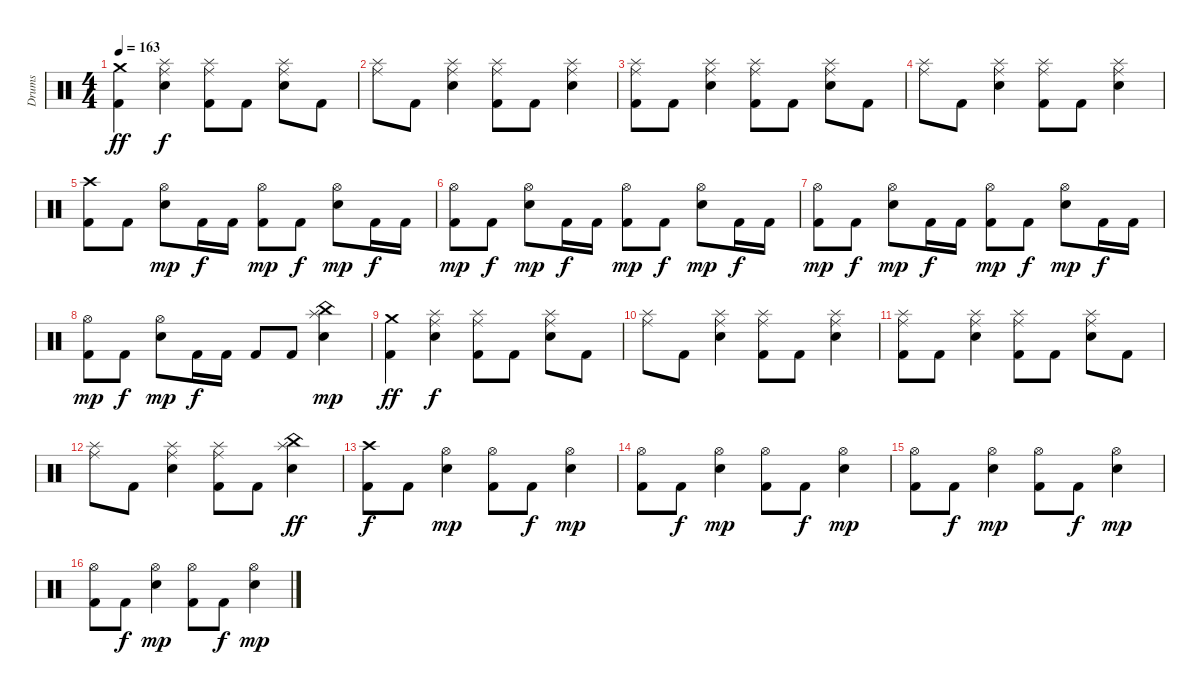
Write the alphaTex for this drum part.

\track ("Drums" "Drums") {instrument percussion}
\staff {score}
\articulation defaults
\ts (4 4)
\tempo 163
\clef neutral
\ks c
("Crash medium (hit)" "Kick (hit) 2").4{dy ff} ("Splash (hit)" "Ride (middle)" "Electric Snare (hit)").4{dy f} ("Splash (hit)" "Ride (middle)" "Kick (hit) 2").8 "Kick (hit) 2".8 ("Splash (hit)" "Ride (middle)" "Electric Snare (hit)").8 "Kick (hit) 2".8 |
("Splash (hit)" "Ride (middle)").8 "Kick (hit) 2".8 ("Splash (hit)" "Ride (middle)" "Electric Snare (hit)").4 ("Splash (hit)" "Ride (middle)" "Kick (hit) 2").8 "Kick (hit) 2".8 ("Splash (hit)" "Ride (middle)" "Electric Snare (hit)").4 |
("Splash (hit)" "Ride (middle)" "Kick (hit) 2").8 "Kick (hit) 2".8 ("Splash (hit)" "Ride (middle)" "Electric Snare (hit)").4 ("Splash (hit)" "Ride (middle)" "Kick (hit) 2").8 "Kick (hit) 2".8 ("Splash (hit)" "Ride (middle)" "Electric Snare (hit)").8 "Kick (hit) 2".8 |
("Splash (hit)" "Ride (middle)").8 "Kick (hit) 2".8 ("Splash (hit)" "Ride (middle)" "Electric Snare (hit)").4 ("Splash (hit)" "Ride (middle)" "Kick (hit) 2").8 "Kick (hit) 2".8 ("Splash (hit)" "Ride (middle)" "Electric Snare (hit)").4 |
("Crash high (hit)" "Kick (hit) 2").8 "Kick (hit) 2".8 ("Hi-Hat (open)" "Electric Snare (hit)").8{dy mp} "Kick (hit) 2".16{dy f} "Kick (hit) 2".16 ("Hi-Hat (open)" "Kick (hit) 2").8{dy mp} "Kick (hit) 2".8{dy f} ("Hi-Hat (open)" "Electric Snare (hit)").8{dy mp} "Kick (hit) 2".16{dy f} "Kick (hit) 2".16 |
("Hi-Hat (open)" "Kick (hit) 2").8{dy mp} "Kick (hit) 2".8{dy f} ("Hi-Hat (open)" "Electric Snare (hit)").8{dy mp} "Kick (hit) 2".16{dy f} "Kick (hit) 2".16 ("Hi-Hat (open)" "Kick (hit) 2").8{dy mp} "Kick (hit) 2".8{dy f} ("Hi-Hat (open)" "Electric Snare (hit)").8{dy mp} "Kick (hit) 2".16{dy f} "Kick (hit) 2".16 |
("Hi-Hat (open)" "Kick (hit) 2").8{dy mp} "Kick (hit) 2".8{dy f} ("Hi-Hat (open)" "Electric Snare (hit)").8{dy mp} "Kick (hit) 2".16{dy f} "Kick (hit) 2".16 ("Hi-Hat (open)" "Kick (hit) 2").8{dy mp} "Kick (hit) 2".8{dy f} ("Hi-Hat (open)" "Electric Snare (hit)").8{dy mp} "Kick (hit) 2".16{dy f} "Kick (hit) 2".16 |
("Hi-Hat (open)" "Kick (hit) 2").8{dy mp} "Kick (hit) 2".8{dy f} ("Hi-Hat (open)" "Electric Snare (hit)").8{dy mp} "Kick (hit) 2".16{dy f} "Kick (hit) 2".16 "Kick (hit) 2".8 "Kick (hit) 2".8 ("China (hit)" "Splash (hit)" "Electric Snare (hit)").4{dy mp} |
("Crash medium (hit)" "Kick (hit) 2").4{dy ff} ("Splash (hit)" "Ride (middle)" "Electric Snare (hit)").4{dy f} ("Splash (hit)" "Ride (middle)" "Kick (hit) 2").8 "Kick (hit) 2".8 ("Splash (hit)" "Ride (middle)" "Electric Snare (hit)").8 "Kick (hit) 2".8 |
("Splash (hit)" "Ride (middle)").8 "Kick (hit) 2".8 ("Splash (hit)" "Ride (middle)" "Electric Snare (hit)").4 ("Splash (hit)" "Ride (middle)" "Kick (hit) 2").8 "Kick (hit) 2".8 ("Splash (hit)" "Ride (middle)" "Electric Snare (hit)").4 |
("Splash (hit)" "Ride (middle)" "Kick (hit) 2").8 "Kick (hit) 2".8 ("Splash (hit)" "Ride (middle)" "Electric Snare (hit)").4 ("Splash (hit)" "Ride (middle)" "Kick (hit) 2").8 "Kick (hit) 2".8 ("Splash (hit)" "Ride (middle)" "Electric Snare (hit)").8 "Kick (hit) 2".8 |
("Splash (hit)" "Ride (middle)").8 "Kick (hit) 2".8 ("Splash (hit)" "Ride (middle)" "Electric Snare (hit)").4 ("Splash (hit)" "Ride (middle)" "Kick (hit) 2").8 "Kick (hit) 2".8 ("China (hit)" "Splash (hit)" "Electric Snare (hit)").4{dy ff} |
("Crash high (hit)" "Kick (hit) 2").8{dy f} "Kick (hit) 2".8 ("Hi-Hat (open)" "Electric Snare (hit)").4{dy mp} ("Hi-Hat (open)" "Kick (hit) 2").8 "Kick (hit) 2".8{dy f} ("Hi-Hat (open)" "Electric Snare (hit)").4{dy mp} |
("Hi-Hat (open)" "Kick (hit) 2").8 "Kick (hit) 2".8{dy f} ("Hi-Hat (open)" "Electric Snare (hit)").4{dy mp} ("Hi-Hat (open)" "Kick (hit) 2").8 "Kick (hit) 2".8{dy f} ("Hi-Hat (open)" "Electric Snare (hit)").4{dy mp} |
("Hi-Hat (open)" "Kick (hit) 2").8 "Kick (hit) 2".8{dy f} ("Hi-Hat (open)" "Electric Snare (hit)").4{dy mp} ("Hi-Hat (open)" "Kick (hit) 2").8 "Kick (hit) 2".8{dy f} ("Hi-Hat (open)" "Electric Snare (hit)").4{dy mp} |
("Hi-Hat (open)" "Kick (hit) 2").8 "Kick (hit) 2".8{dy f} ("Hi-Hat (open)" "Electric Snare (hit)").4{dy mp} ("Hi-Hat (open)" "Kick (hit) 2").8 "Kick (hit) 2".8{dy f} ("Hi-Hat (open)" "Electric Snare (hit)").4{dy mp}
